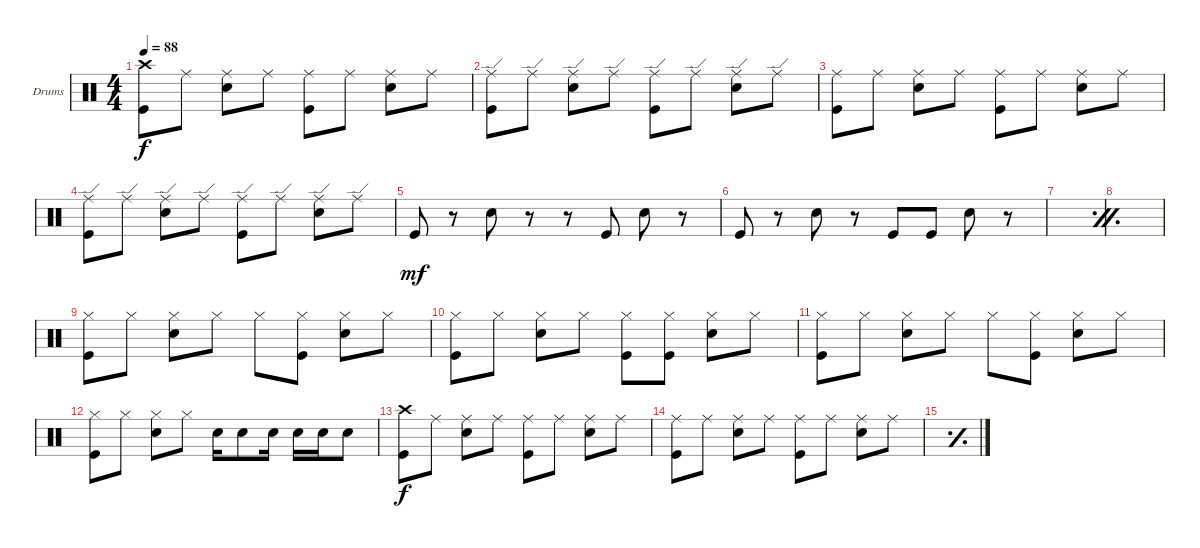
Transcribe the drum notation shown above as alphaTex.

\defaultSystemsLayout 4
\bracketExtendMode groupsimilarinstruments
\firstSystemTrackNameOrientation horizontal
\otherSystemsTrackNameOrientation horizontal
\track ("Алена" "Drums") {instrument percussion}
\staff {score}
\articulation defaults
\ts (4 4)
\tempo 88
\clef neutral
\scale
0.273394
\ks c
("Kick (hit)" "Crash high (hit)").8{dy f} "Ride (middle)".8 ("Snare (hit) 2" "Ride (middle)").8 "Ride (middle)".8 ("Kick (hit)" "Ride (middle)").8 "Ride (middle)".8 ("Snare (hit) 2" "Ride (middle)").8 "Ride (middle)".8 |
("Kick (hit)" "Ride (edge)").8 "Ride (edge)".8 ("Snare (hit) 2" "Ride (edge)").8 "Ride (edge)".8 ("Kick (hit)" "Ride (edge)").8 "Ride (edge)".8 ("Snare (hit) 2" "Ride (edge)").8 "Ride (edge)".8 |
("Kick (hit)" "Ride (middle)").8 "Ride (middle)".8 ("Snare (hit) 2" "Ride (middle)").8 "Ride (middle)".8 ("Kick (hit)" "Ride (middle)").8 "Ride (middle)".8 ("Snare (hit) 2" "Ride (middle)").8 "Ride (middle)".8 |
\scale
0.242202 ("Kick (hit)" "Ride (edge)").8 "Ride (edge)".8 ("Snare (hit) 2" "Ride (edge)").8 "Ride (edge)".8 ("Kick (hit)" "Ride (edge)").8 "Ride (edge)".8 ("Snare (hit) 2" "Ride (edge)").8 "Ride (edge)".8 |
"Kick (hit)".8{dy mf} r.8 "Snare (hit) 2".8 r.8 r.8 "Kick (hit)".8 "Snare (hit) 2".8 r.8 |
"Kick (hit)".8 r.8 "Snare (hit) 2".8 r.8 "Kick (hit)".8 "Kick (hit)".8 "Snare (hit) 2".8 r.8 |
\simile firstofdouble
\scale
0.123037 |
\simile secondofdouble
\scale
0.123037 |
\simile none
\scale
0.260035 ("Kick (hit)" "Hi-Hat (closed)").8 "Hi-Hat (closed)".8 ("Snare (hit) 2" "Hi-Hat (closed)").8 "Hi-Hat (closed)".8 "Hi-Hat (closed)".8 ("Hi-Hat (closed)" "Kick (hit)").8 ("Hi-Hat (closed)" "Snare (hit) 2").8 "Hi-Hat (closed)".8 |
\scale
0.230366 ("Kick (hit)" "Hi-Hat (closed)").8 "Hi-Hat (closed)".8 ("Snare (hit) 2" "Hi-Hat (closed)").8 "Hi-Hat (closed)".8 ("Hi-Hat (closed)" "Kick (hit)").8 ("Hi-Hat (closed)" "Kick (hit)").8 ("Hi-Hat (closed)" "Snare (hit) 2").8 "Hi-Hat (closed)".8 |
("Kick (hit)" "Hi-Hat (closed)").8 "Hi-Hat (closed)".8 ("Snare (hit) 2" "Hi-Hat (closed)").8 "Hi-Hat (closed)".8 "Hi-Hat (closed)".8 ("Hi-Hat (closed)" "Kick (hit)").8 ("Hi-Hat (closed)" "Snare (hit) 2").8 "Hi-Hat (closed)".8 |
("Kick (hit)" "Hi-Hat (closed)").8 "Hi-Hat (closed)".8 ("Snare (hit) 2" "Hi-Hat (closed)").8 "Hi-Hat (closed)".8 "Snare (hit) 2".16 "Snare (hit) 2".8 "Snare (hit) 2".16 "Snare (hit) 2".16 "Snare (hit) 2".16 "Snare (hit) 2".8 |
("Kick (hit)" "Crash high (hit)").8{dy f} "Ride (middle)".8 ("Snare (hit) 2" "Ride (middle)").8 "Ride (middle)".8 ("Kick (hit)" "Ride (middle)").8 "Ride (middle)".8 ("Snare (hit) 2" "Ride (middle)").8 "Ride (middle)".8 |
("Kick (hit)" "Ride (middle)").8 "Ride (middle)".8 ("Snare (hit) 2" "Ride (middle)").8 "Ride (middle)".8 ("Kick (hit)" "Ride (middle)").8 "Ride (middle)".8 ("Snare (hit) 2" "Ride (middle)").8 "Ride (middle)".8 |
\simile simple
